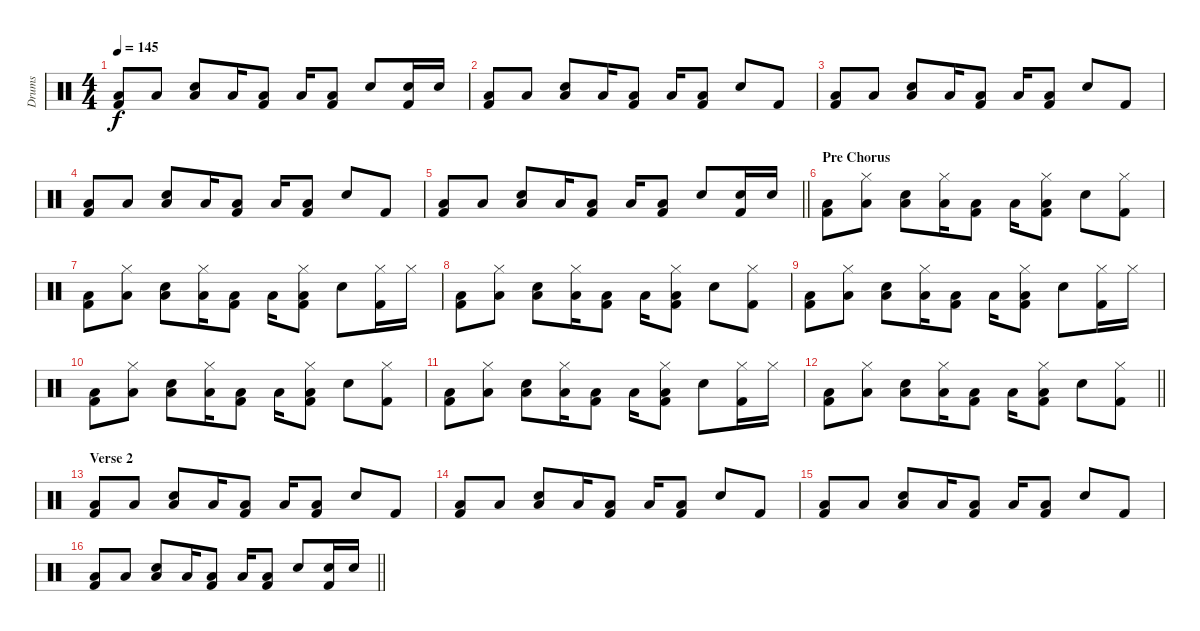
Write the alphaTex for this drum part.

\track ("Drums" "Drums") {instrument percussion}
\staff {score}
\articulation defaults
\ts (4 4)
\tempo 145
\clef neutral
\ks c
("Low Tom (hit)" "Kick (hit) 2").8{dy f} "Low Tom (hit)".8 ("Low Tom (hit)" "Snare (hit) 2").8 "Low Floor Tom (hit)".16 ("Low Floor Tom (hit)" "Kick (hit) 2").8 "Low Floor Tom (hit)".16 ("Low Floor Tom (hit)" "Kick (hit) 2").8 "Snare (hit) 2".8 ("Snare (hit) 2" "Kick (hit) 2").16 "Snare (hit) 2".16 |
("Low Tom (hit)" "Kick (hit) 2").8 "Low Tom (hit)".8 ("Low Tom (hit)" "Snare (hit) 2").8 "Low Floor Tom (hit)".16 ("Low Floor Tom (hit)" "Kick (hit) 2").8 "Low Floor Tom (hit)".16 ("Low Floor Tom (hit)" "Kick (hit) 2").8 "Snare (hit) 2".8 "Kick (hit) 2".8 |
("Low Tom (hit)" "Kick (hit) 2").8 "Low Tom (hit)".8 ("Low Tom (hit)" "Snare (hit) 2").8 "Low Floor Tom (hit)".16 ("Low Floor Tom (hit)" "Kick (hit) 2").8 "Low Floor Tom (hit)".16 ("Low Floor Tom (hit)" "Kick (hit) 2").8 "Snare (hit) 2".8 "Kick (hit) 2".8 |
("Low Tom (hit)" "Kick (hit) 2").8 "Low Tom (hit)".8 ("Low Tom (hit)" "Snare (hit) 2").8 "Low Floor Tom (hit)".16 ("Low Floor Tom (hit)" "Kick (hit) 2").8 "Low Floor Tom (hit)".16 ("Low Floor Tom (hit)" "Kick (hit) 2").8 "Snare (hit) 2".8 "Kick (hit) 2".8 |
\barLineRight lightlight
("Low Tom (hit)" "Kick (hit) 2").8 "Low Tom (hit)".8 ("Low Tom (hit)" "Snare (hit) 2").8 "Low Floor Tom (hit)".16 ("Low Floor Tom (hit)" "Kick (hit) 2").8 "Low Floor Tom (hit)".16 ("Low Floor Tom (hit)" "Kick (hit) 2").8 "Snare (hit) 2".8 ("Snare (hit) 2" "Kick (hit) 2").16 "Snare (hit) 2".16 |
\section ("" "Pre Chorus")
("Low Tom (hit)" "Kick (hit) 2").8 ("Low Tom (hit)" "Hi-Hat (closed)").8 ("Low Tom (hit)" "Snare (hit) 2").8 ("Low Floor Tom (hit)" "Hi-Hat (closed)").16 ("Low Floor Tom (hit)" "Kick (hit) 2").8 "Low Floor Tom (hit)".16 ("Low Floor Tom (hit)" "Kick (hit) 2" "Hi-Hat (closed)").8 "Snare (hit) 2".8 ("Kick (hit) 2" "Hi-Hat (closed)").8 |
("Low Tom (hit)" "Kick (hit) 2").8 ("Low Tom (hit)" "Hi-Hat (closed)").8 ("Low Tom (hit)" "Snare (hit) 2").8 ("Low Floor Tom (hit)" "Hi-Hat (closed)").16 ("Low Floor Tom (hit)" "Kick (hit) 2").8 "Low Floor Tom (hit)".16 ("Low Floor Tom (hit)" "Kick (hit) 2" "Hi-Hat (closed)").8 "Snare (hit) 2".8 ("Kick (hit) 2" "Hi-Hat (closed)").16 "Hi-Hat (closed)".16 |
("Low Tom (hit)" "Kick (hit) 2").8 ("Low Tom (hit)" "Hi-Hat (closed)").8 ("Low Tom (hit)" "Snare (hit) 2").8 ("Low Floor Tom (hit)" "Hi-Hat (closed)").16 ("Low Floor Tom (hit)" "Kick (hit) 2").8 "Low Floor Tom (hit)".16 ("Low Floor Tom (hit)" "Kick (hit) 2" "Hi-Hat (closed)").8 "Snare (hit) 2".8 ("Kick (hit) 2" "Hi-Hat (closed)").8 |
("Low Tom (hit)" "Kick (hit) 2").8 ("Low Tom (hit)" "Hi-Hat (closed)").8 ("Low Tom (hit)" "Snare (hit) 2").8 ("Low Floor Tom (hit)" "Hi-Hat (closed)").16 ("Low Floor Tom (hit)" "Kick (hit) 2").8 "Low Floor Tom (hit)".16 ("Low Floor Tom (hit)" "Kick (hit) 2" "Hi-Hat (closed)").8 "Snare (hit) 2".8 ("Kick (hit) 2" "Hi-Hat (closed)").16 "Hi-Hat (closed)".16 |
("Low Tom (hit)" "Kick (hit) 2").8 ("Low Tom (hit)" "Hi-Hat (closed)").8 ("Low Tom (hit)" "Snare (hit) 2").8 ("Low Floor Tom (hit)" "Hi-Hat (closed)").16 ("Low Floor Tom (hit)" "Kick (hit) 2").8 "Low Floor Tom (hit)".16 ("Low Floor Tom (hit)" "Kick (hit) 2" "Hi-Hat (closed)").8 "Snare (hit) 2".8 ("Kick (hit) 2" "Hi-Hat (closed)").8 |
("Low Tom (hit)" "Kick (hit) 2").8 ("Low Tom (hit)" "Hi-Hat (closed)").8 ("Low Tom (hit)" "Snare (hit) 2").8 ("Low Floor Tom (hit)" "Hi-Hat (closed)").16 ("Low Floor Tom (hit)" "Kick (hit) 2").8 "Low Floor Tom (hit)".16 ("Low Floor Tom (hit)" "Kick (hit) 2" "Hi-Hat (closed)").8 "Snare (hit) 2".8 ("Kick (hit) 2" "Hi-Hat (closed)").16 "Hi-Hat (closed)".16 |
\barLineRight lightlight
("Low Tom (hit)" "Kick (hit) 2").8 ("Low Tom (hit)" "Hi-Hat (closed)").8 ("Low Tom (hit)" "Snare (hit) 2").8 ("Low Floor Tom (hit)" "Hi-Hat (closed)").16 ("Low Floor Tom (hit)" "Kick (hit) 2").8 "Low Floor Tom (hit)".16 ("Low Floor Tom (hit)" "Kick (hit) 2" "Hi-Hat (closed)").8 "Snare (hit) 2".8 ("Kick (hit) 2" "Hi-Hat (closed)").8 |
\section ("" "Verse 2")
("Low Tom (hit)" "Kick (hit) 2").8 "Low Tom (hit)".8 ("Low Tom (hit)" "Snare (hit) 2").8 "Low Floor Tom (hit)".16 ("Low Floor Tom (hit)" "Kick (hit) 2").8 "Low Floor Tom (hit)".16 ("Low Floor Tom (hit)" "Kick (hit) 2").8 "Snare (hit) 2".8 "Kick (hit) 2".8 |
("Low Tom (hit)" "Kick (hit) 2").8 "Low Tom (hit)".8 ("Low Tom (hit)" "Snare (hit) 2").8 "Low Floor Tom (hit)".16 ("Low Floor Tom (hit)" "Kick (hit) 2").8 "Low Floor Tom (hit)".16 ("Low Floor Tom (hit)" "Kick (hit) 2").8 "Snare (hit) 2".8 "Kick (hit) 2".8 |
("Low Tom (hit)" "Kick (hit) 2").8 "Low Tom (hit)".8 ("Low Tom (hit)" "Snare (hit) 2").8 "Low Floor Tom (hit)".16 ("Low Floor Tom (hit)" "Kick (hit) 2").8 "Low Floor Tom (hit)".16 ("Low Floor Tom (hit)" "Kick (hit) 2").8 "Snare (hit) 2".8 "Kick (hit) 2".8 |
\barLineRight lightlight
("Low Tom (hit)" "Kick (hit) 2").8 "Low Tom (hit)".8 ("Low Tom (hit)" "Snare (hit) 2").8 "Low Floor Tom (hit)".16 ("Low Floor Tom (hit)" "Kick (hit) 2").8 "Low Floor Tom (hit)".16 ("Low Floor Tom (hit)" "Kick (hit) 2").8 "Snare (hit) 2".8 ("Snare (hit) 2" "Kick (hit) 2").16 "Snare (hit) 2".16
